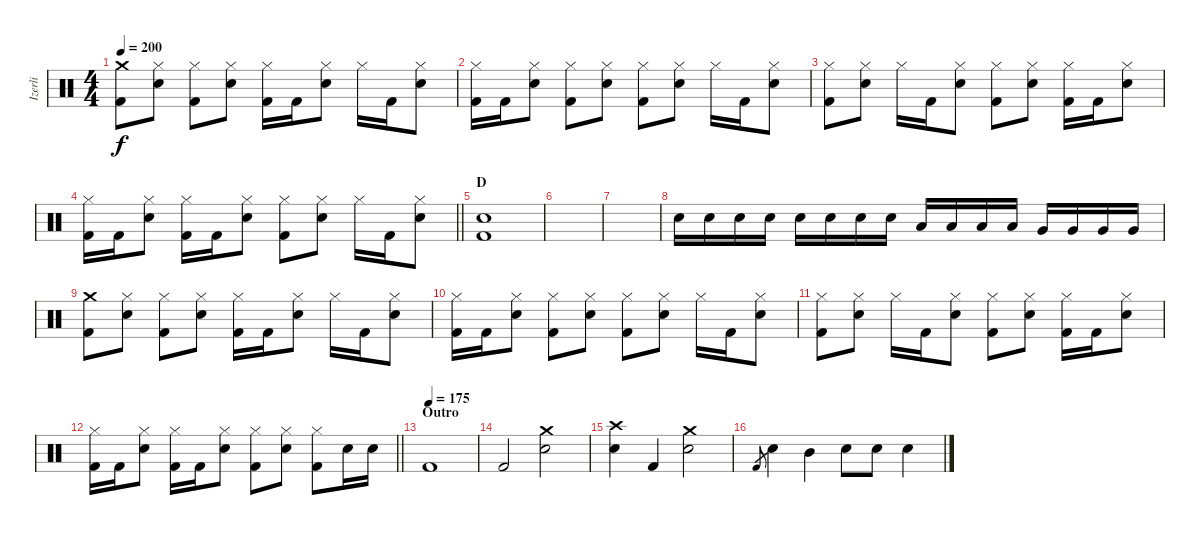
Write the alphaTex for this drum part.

\track ("Izerli" "Izerli") {instrument percussion}
\staff {score}
\articulation defaults
\ts (4 4)
\tempo 200
\clef neutral
\ks c
("Crash medium (hit)" "Kick (hit) 2").8{dy f} ("Hi-Hat (closed)" "Electric Snare (hit)").8 ("Hi-Hat (closed)" "Kick (hit) 2").8 ("Hi-Hat (closed)" "Electric Snare (hit)").8 ("Hi-Hat (closed)" "Kick (hit) 2").16 "Kick (hit) 2".16 ("Hi-Hat (closed)" "Electric Snare (hit)").8 "Hi-Hat (closed)".16 "Kick (hit) 2".16 ("Hi-Hat (closed)" "Electric Snare (hit)").8 |
("Hi-Hat (closed)" "Kick (hit) 2").16 "Kick (hit) 2".16 ("Hi-Hat (closed)" "Electric Snare (hit)").8 ("Hi-Hat (closed)" "Kick (hit) 2").8 ("Hi-Hat (closed)" "Electric Snare (hit)").8 ("Hi-Hat (closed)" "Kick (hit) 2").8 ("Hi-Hat (closed)" "Electric Snare (hit)").8 "Hi-Hat (closed)".16 "Kick (hit) 2".16 ("Hi-Hat (closed)" "Electric Snare (hit)").8 |
("Hi-Hat (closed)" "Kick (hit) 2").8 ("Hi-Hat (closed)" "Electric Snare (hit)").8 "Hi-Hat (closed)".16 "Kick (hit) 2".16 ("Hi-Hat (closed)" "Electric Snare (hit)").8 ("Hi-Hat (closed)" "Kick (hit) 2").8 ("Hi-Hat (closed)" "Electric Snare (hit)").8 ("Hi-Hat (closed)" "Kick (hit) 2").16 "Kick (hit) 2".16 ("Hi-Hat (closed)" "Electric Snare (hit)").8 |
\barLineRight lightlight
("Hi-Hat (closed)" "Kick (hit) 2").16 "Kick (hit) 2".16 ("Hi-Hat (closed)" "Electric Snare (hit)").8 ("Hi-Hat (closed)" "Kick (hit) 2").16 "Kick (hit) 2".16 ("Hi-Hat (closed)" "Electric Snare (hit)").8 ("Hi-Hat (closed)" "Kick (hit) 2").8 ("Hi-Hat (closed)" "Electric Snare (hit)").8 "Hi-Hat (closed)".16 "Kick (hit) 2".16 ("Hi-Hat (closed)" "Electric Snare (hit)").8 |
\section ("" "D")
("Electric Snare (hit)" "Kick (hit) 2").1 |
|
|
"Electric Snare (hit)".16 "Electric Snare (hit)".16 "Electric Snare (hit)".16 "Electric Snare (hit)".16 "Electric Snare (hit)".16 "Electric Snare (hit)".16 "Electric Snare (hit)".16 "Electric Snare (hit)".16 "Low Tom (hit)".16 "Low Tom (hit)".16 "Low Tom (hit)".16 "Low Tom (hit)".16 "Very Low Tom (hit)".16 "Very Low Tom (hit)".16 "Very Low Tom (hit)".16 "Very Low Tom (hit)".16 |
("Crash medium (hit)" "Kick (hit) 2").8 ("Hi-Hat (closed)" "Electric Snare (hit)").8 ("Hi-Hat (closed)" "Kick (hit) 2").8 ("Hi-Hat (closed)" "Electric Snare (hit)").8 ("Hi-Hat (closed)" "Kick (hit) 2").16 "Kick (hit) 2".16 ("Hi-Hat (closed)" "Electric Snare (hit)").8 "Hi-Hat (closed)".16 "Kick (hit) 2".16 ("Hi-Hat (closed)" "Electric Snare (hit)").8 |
("Hi-Hat (closed)" "Kick (hit) 2").16 "Kick (hit) 2".16 ("Hi-Hat (closed)" "Electric Snare (hit)").8 ("Hi-Hat (closed)" "Kick (hit) 2").8 ("Hi-Hat (closed)" "Electric Snare (hit)").8 ("Hi-Hat (closed)" "Kick (hit) 2").8 ("Hi-Hat (closed)" "Electric Snare (hit)").8 "Hi-Hat (closed)".16 "Kick (hit) 2".16 ("Hi-Hat (closed)" "Electric Snare (hit)").8 |
("Hi-Hat (closed)" "Kick (hit) 2").8 ("Hi-Hat (closed)" "Electric Snare (hit)").8 "Hi-Hat (closed)".16 "Kick (hit) 2".16 ("Hi-Hat (closed)" "Electric Snare (hit)").8 ("Hi-Hat (closed)" "Kick (hit) 2").8 ("Hi-Hat (closed)" "Electric Snare (hit)").8 ("Hi-Hat (closed)" "Kick (hit) 2").16 "Kick (hit) 2".16 ("Hi-Hat (closed)" "Electric Snare (hit)").8 |
\barLineRight lightlight
("Hi-Hat (closed)" "Kick (hit) 2").16 "Kick (hit) 2".16 ("Hi-Hat (closed)" "Electric Snare (hit)").8 ("Hi-Hat (closed)" "Kick (hit) 2").16 "Kick (hit) 2".16 ("Hi-Hat (closed)" "Electric Snare (hit)").8 ("Hi-Hat (closed)" "Kick (hit) 2").8 ("Hi-Hat (closed)" "Electric Snare (hit)").8 ("Hi-Hat (closed)" "Kick (hit) 2").8 "Electric Snare (hit)".16 "Electric Snare (hit)".16 |
\section ("" "Outro")
\tempo (175)
"Kick (hit) 2".1 |
"Kick (hit) 2".2 ("Crash medium (hit)" "Electric Snare (hit)").2 |
("Crash high (hit)" "Electric Snare (hit)").4 "Kick (hit) 2".4 ("Crash medium (hit)" "Electric Snare (hit)").2 |
"Kick (hit) 2".8{gr} "Electric Snare (hit)".4 "Mid Tom (hit)".4 "Electric Snare (hit)".8 "Electric Snare (hit)".8 "Electric Snare (hit)".4
